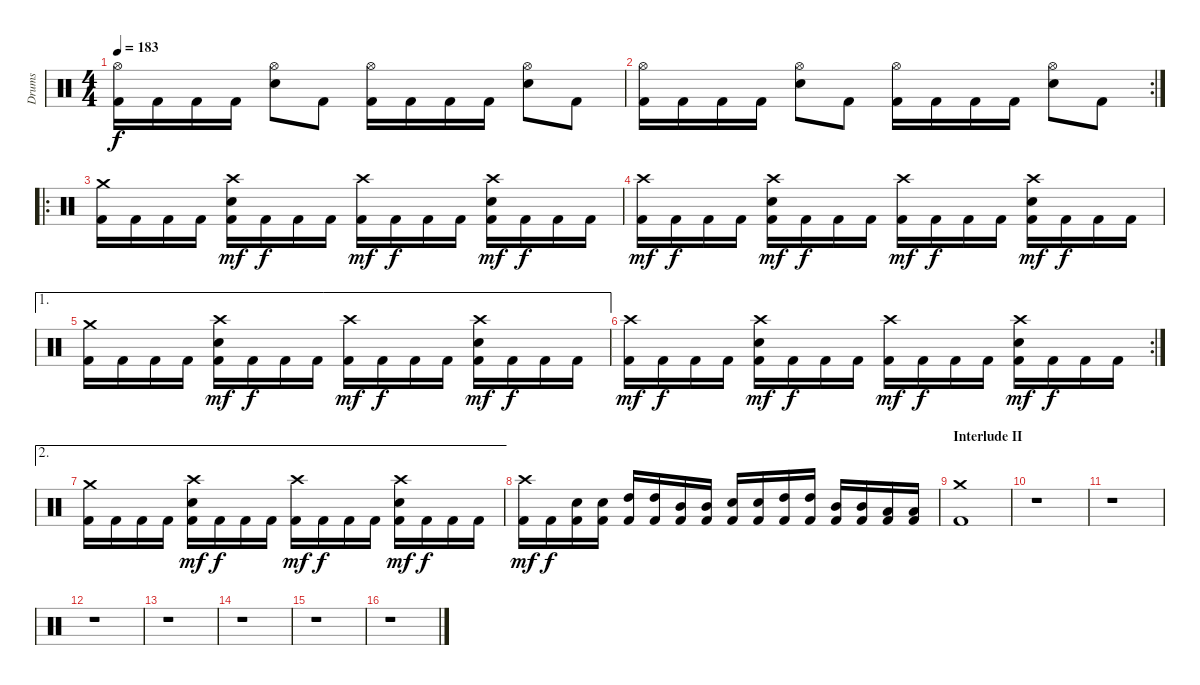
\track ("Drums" "Drums") {instrument percussion}
\staff {score}
\articulation defaults
\ts (4 4)
\tempo 183
\clef neutral
\ks c
("Kick (hit) 2" "Hi-Hat (open)").16{dy f} "Kick (hit) 2".16 "Kick (hit) 2".16 "Kick (hit) 2".16 ("Electric Snare (hit)" "Hi-Hat (open)").8 "Kick (hit) 2".8 ("Kick (hit) 2" "Hi-Hat (open)").16 "Kick (hit) 2".16 "Kick (hit) 2".16 "Kick (hit) 2".16 ("Electric Snare (hit)" "Hi-Hat (open)").8 "Kick (hit) 2".8 |
\rc 2
("Kick (hit) 2" "Hi-Hat (open)").16 "Kick (hit) 2".16 "Kick (hit) 2".16 "Kick (hit) 2".16 ("Electric Snare (hit)" "Hi-Hat (open)").8 "Kick (hit) 2".8 ("Kick (hit) 2" "Hi-Hat (open)").16 "Kick (hit) 2".16 "Kick (hit) 2".16 "Kick (hit) 2".16 ("Electric Snare (hit)" "Hi-Hat (open)").8 "Kick (hit) 2".8 |
\ro
("Kick (hit) 2" "Crash medium (hit)").16 "Kick (hit) 2".16 "Kick (hit) 2".16 "Kick (hit) 2".16 ("Kick (hit) 2" "Electric Snare (hit)" "Crash high (hit)").16{dy mf} "Kick (hit) 2".16{dy f} "Kick (hit) 2".16 "Kick (hit) 2".16 ("Kick (hit) 2" "Crash high (hit)").16{dy mf} "Kick (hit) 2".16{dy f} "Kick (hit) 2".16 "Kick (hit) 2".16 ("Kick (hit) 2" "Electric Snare (hit)" "Crash high (hit)").16{dy mf} "Kick (hit) 2".16{dy f} "Kick (hit) 2".16 "Kick (hit) 2".16 |
("Kick (hit) 2" "Crash high (hit)").16{dy mf} "Kick (hit) 2".16{dy f} "Kick (hit) 2".16 "Kick (hit) 2".16 ("Kick (hit) 2" "Electric Snare (hit)" "Crash high (hit)").16{dy mf} "Kick (hit) 2".16{dy f} "Kick (hit) 2".16 "Kick (hit) 2".16 ("Kick (hit) 2" "Crash high (hit)").16{dy mf} "Kick (hit) 2".16{dy f} "Kick (hit) 2".16 "Kick (hit) 2".16 ("Kick (hit) 2" "Electric Snare (hit)" "Crash high (hit)").16{dy mf} "Kick (hit) 2".16{dy f} "Kick (hit) 2".16 "Kick (hit) 2".16 |
\ae 1
("Kick (hit) 2" "Crash medium (hit)").16 "Kick (hit) 2".16 "Kick (hit) 2".16 "Kick (hit) 2".16 ("Kick (hit) 2" "Electric Snare (hit)" "Crash high (hit)").16{dy mf} "Kick (hit) 2".16{dy f} "Kick (hit) 2".16 "Kick (hit) 2".16 ("Kick (hit) 2" "Crash high (hit)").16{dy mf} "Kick (hit) 2".16{dy f} "Kick (hit) 2".16 "Kick (hit) 2".16 ("Kick (hit) 2" "Electric Snare (hit)" "Crash high (hit)").16{dy mf} "Kick (hit) 2".16{dy f} "Kick (hit) 2".16 "Kick (hit) 2".16 |
\rc 2
("Kick (hit) 2" "Crash high (hit)").16{dy mf} "Kick (hit) 2".16{dy f} "Kick (hit) 2".16 "Kick (hit) 2".16 ("Kick (hit) 2" "Electric Snare (hit)" "Crash high (hit)").16{dy mf} "Kick (hit) 2".16{dy f} "Kick (hit) 2".16 "Kick (hit) 2".16 ("Kick (hit) 2" "Crash high (hit)").16{dy mf} "Kick (hit) 2".16{dy f} "Kick (hit) 2".16 "Kick (hit) 2".16 ("Kick (hit) 2" "Electric Snare (hit)" "Crash high (hit)").16{dy mf} "Kick (hit) 2".16{dy f} "Kick (hit) 2".16 "Kick (hit) 2".16 |
\ae 2
("Kick (hit) 2" "Crash medium (hit)").16 "Kick (hit) 2".16 "Kick (hit) 2".16 "Kick (hit) 2".16 ("Kick (hit) 2" "Electric Snare (hit)" "Crash high (hit)").16{dy mf} "Kick (hit) 2".16{dy f} "Kick (hit) 2".16 "Kick (hit) 2".16 ("Kick (hit) 2" "Crash high (hit)").16{dy mf} "Kick (hit) 2".16{dy f} "Kick (hit) 2".16 "Kick (hit) 2".16 ("Kick (hit) 2" "Electric Snare (hit)" "Crash high (hit)").16{dy mf} "Kick (hit) 2".16{dy f} "Kick (hit) 2".16 "Kick (hit) 2".16 |
("Kick (hit) 2" "Crash high (hit)").16{dy mf} "Kick (hit) 2".16{dy f} ("Kick (hit) 2" "Electric Snare (hit)").16 ("Kick (hit) 2" "Electric Snare (hit)").16 ("Kick (hit) 2" "High Tom (hit)").16 ("Kick (hit) 2" "High Tom (hit)").16 ("Kick (hit) 2" "Mid Tom (hit)").16 ("Kick (hit) 2" "Mid Tom (hit)").16 ("Kick (hit) 2" "Electric Snare (hit)").16 ("Kick (hit) 2" "Electric Snare (hit)").16 ("Kick (hit) 2" "High Tom (hit)").16 ("Kick (hit) 2" "High Tom (hit)").16 ("Kick (hit) 2" "Mid Tom (hit)").16 ("Kick (hit) 2" "Mid Tom (hit)").16 ("Kick (hit) 2" "Low Tom (hit)").16 ("Kick (hit) 2" "Low Tom (hit)").16 |
\section ("" "Interlude II")
("Kick (hit) 2" "Crash medium (hit)").1 |
r.1 |
r.1 |
r.1 |
r.1 |
r.1 |
r.1 |
r.1
